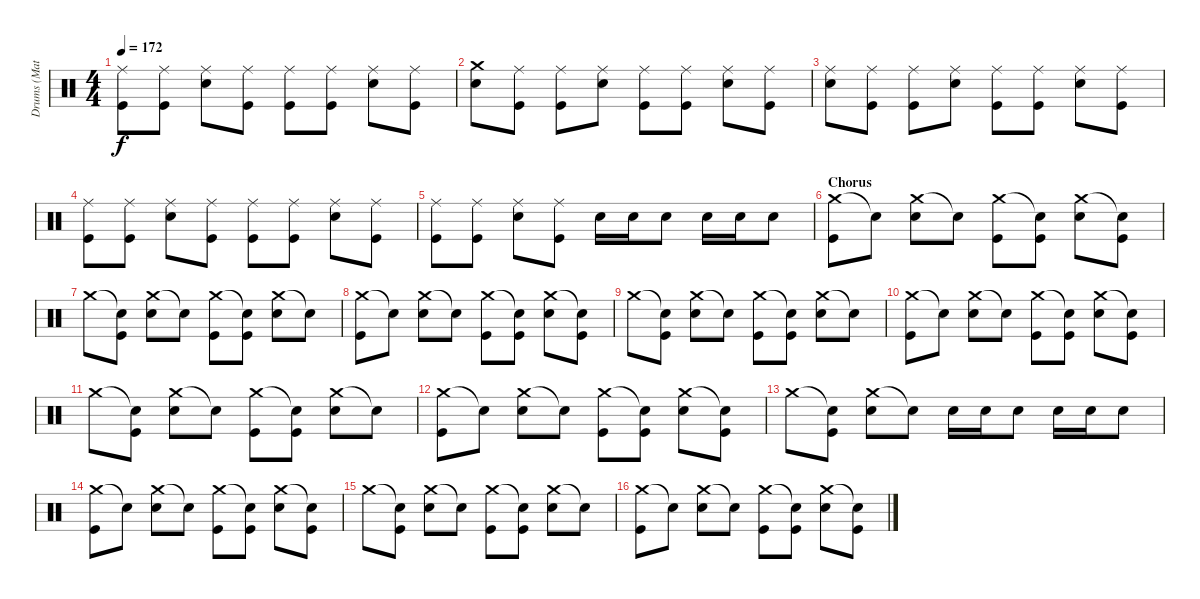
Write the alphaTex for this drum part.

\track ("Drums (Matt)" "Drums (Mat") {instrument percussion}
\staff {score}
\articulation defaults
\ts (4 4)
\tempo 172
\clef neutral
\ks c
("Ride (middle)" "Kick (hit)").8{dy f} ("Ride (middle)" "Kick (hit)").8 ("Ride (middle)" "Electric Snare (hit)").8 ("Ride (middle)" "Kick (hit)").8 ("Ride (middle)" "Kick (hit)").8 ("Ride (middle)" "Kick (hit)").8 ("Ride (middle)" "Electric Snare (hit)").8 ("Ride (middle)" "Kick (hit)").8 |
("Crash medium (hit)" "Electric Snare (hit)").8 ("Ride (middle)" "Kick (hit)").8 ("Ride (middle)" "Kick (hit)").8 ("Ride (middle)" "Electric Snare (hit)").8 ("Ride (middle)" "Kick (hit)").8 ("Ride (middle)" "Kick (hit)").8 ("Ride (middle)" "Electric Snare (hit)").8 ("Ride (middle)" "Kick (hit)").8 |
("Ride (middle)" "Electric Snare (hit)").8 ("Ride (middle)" "Kick (hit)").8 ("Ride (middle)" "Kick (hit)").8 ("Ride (middle)" "Electric Snare (hit)").8 ("Ride (middle)" "Kick (hit)").8 ("Ride (middle)" "Kick (hit)").8 ("Ride (middle)" "Electric Snare (hit)").8 ("Ride (middle)" "Kick (hit)").8 |
("Ride (middle)" "Kick (hit)").8 ("Ride (middle)" "Kick (hit)").8 ("Ride (middle)" "Electric Snare (hit)").8 ("Ride (middle)" "Kick (hit)").8 ("Ride (middle)" "Kick (hit)").8 ("Ride (middle)" "Kick (hit)").8 ("Ride (middle)" "Electric Snare (hit)").8 ("Ride (middle)" "Kick (hit)").8 |
("Ride (middle)" "Kick (hit)").8 ("Ride (middle)" "Kick (hit)").8 ("Ride (middle)" "Electric Snare (hit)").8 ("Ride (middle)" "Kick (hit)").8 "Electric Snare (hit)".16 "Electric Snare (hit)".16 "Electric Snare (hit)".8 "Electric Snare (hit)".16 "Electric Snare (hit)".16 "Electric Snare (hit)".8 |
\section ("" "Chorus")
("Crash medium (hit)" "Kick (hit)").8 "Snare (hit)"{t}.8 ("Crash medium (hit)" "Electric Snare (hit)").8 "Snare (hit)"{t}.8 ("Crash medium (hit)" "Kick (hit)").8 ("Snare (hit)"{t} "Kick (hit)").8 ("Crash medium (hit)" "Electric Snare (hit)").8 ("Snare (hit)"{t} "Kick (hit)").8 |
"Crash medium (hit)".8 ("Snare (hit)"{t} "Kick (hit)").8 ("Crash medium (hit)" "Electric Snare (hit)").8 "Snare (hit)"{t}.8 ("Crash medium (hit)" "Kick (hit)").8 ("Snare (hit)"{t} "Kick (hit)").8 ("Crash medium (hit)" "Electric Snare (hit)").8 "Snare (hit)"{t}.8 |
("Crash medium (hit)" "Kick (hit)").8 "Snare (hit)"{t}.8 ("Crash medium (hit)" "Electric Snare (hit)").8 "Snare (hit)"{t}.8 ("Crash medium (hit)" "Kick (hit)").8 ("Snare (hit)"{t} "Kick (hit)").8 ("Crash medium (hit)" "Electric Snare (hit)").8 ("Snare (hit)"{t} "Kick (hit)").8 |
"Crash medium (hit)".8 ("Snare (hit)"{t} "Kick (hit)").8 ("Crash medium (hit)" "Electric Snare (hit)").8 "Snare (hit)"{t}.8 ("Crash medium (hit)" "Kick (hit)").8 ("Snare (hit)"{t} "Kick (hit)").8 ("Crash medium (hit)" "Electric Snare (hit)").8 "Snare (hit)"{t}.8 |
("Crash medium (hit)" "Kick (hit)").8 "Snare (hit)"{t}.8 ("Crash medium (hit)" "Electric Snare (hit)").8 "Snare (hit)"{t}.8 ("Crash medium (hit)" "Kick (hit)").8 ("Snare (hit)"{t} "Kick (hit)").8 ("Crash medium (hit)" "Electric Snare (hit)").8 ("Snare (hit)"{t} "Kick (hit)").8 |
"Crash medium (hit)".8 ("Snare (hit)"{t} "Kick (hit)").8 ("Crash medium (hit)" "Electric Snare (hit)").8 "Snare (hit)"{t}.8 ("Crash medium (hit)" "Kick (hit)").8 ("Snare (hit)"{t} "Kick (hit)").8 ("Crash medium (hit)" "Electric Snare (hit)").8 "Snare (hit)"{t}.8 |
("Crash medium (hit)" "Kick (hit)").8 "Snare (hit)"{t}.8 ("Crash medium (hit)" "Electric Snare (hit)").8 "Snare (hit)"{t}.8 ("Crash medium (hit)" "Kick (hit)").8 ("Snare (hit)"{t} "Kick (hit)").8 ("Crash medium (hit)" "Electric Snare (hit)").8 ("Snare (hit)"{t} "Kick (hit)").8 |
"Crash medium (hit)".8 ("Snare (hit)"{t} "Kick (hit)").8 ("Crash medium (hit)" "Electric Snare (hit)").8 "Snare (hit)"{t}.8 "Electric Snare (hit)".16 "Electric Snare (hit)".16 "Electric Snare (hit)".8 "Electric Snare (hit)".16 "Electric Snare (hit)".16 "Electric Snare (hit)".8 |
("Crash medium (hit)" "Kick (hit)").8 "Snare (hit)"{t}.8 ("Crash medium (hit)" "Electric Snare (hit)").8 "Snare (hit)"{t}.8 ("Crash medium (hit)" "Kick (hit)").8 ("Snare (hit)"{t} "Kick (hit)").8 ("Crash medium (hit)" "Electric Snare (hit)").8 ("Snare (hit)"{t} "Kick (hit)").8 |
"Crash medium (hit)".8 ("Snare (hit)"{t} "Kick (hit)").8 ("Crash medium (hit)" "Electric Snare (hit)").8 "Snare (hit)"{t}.8 ("Crash medium (hit)" "Kick (hit)").8 ("Snare (hit)"{t} "Kick (hit)").8 ("Crash medium (hit)" "Electric Snare (hit)").8 "Snare (hit)"{t}.8 |
("Crash medium (hit)" "Kick (hit)").8 "Snare (hit)"{t}.8 ("Crash medium (hit)" "Electric Snare (hit)").8 "Snare (hit)"{t}.8 ("Crash medium (hit)" "Kick (hit)").8 ("Snare (hit)"{t} "Kick (hit)").8 ("Crash medium (hit)" "Electric Snare (hit)").8 ("Snare (hit)"{t} "Kick (hit)").8
